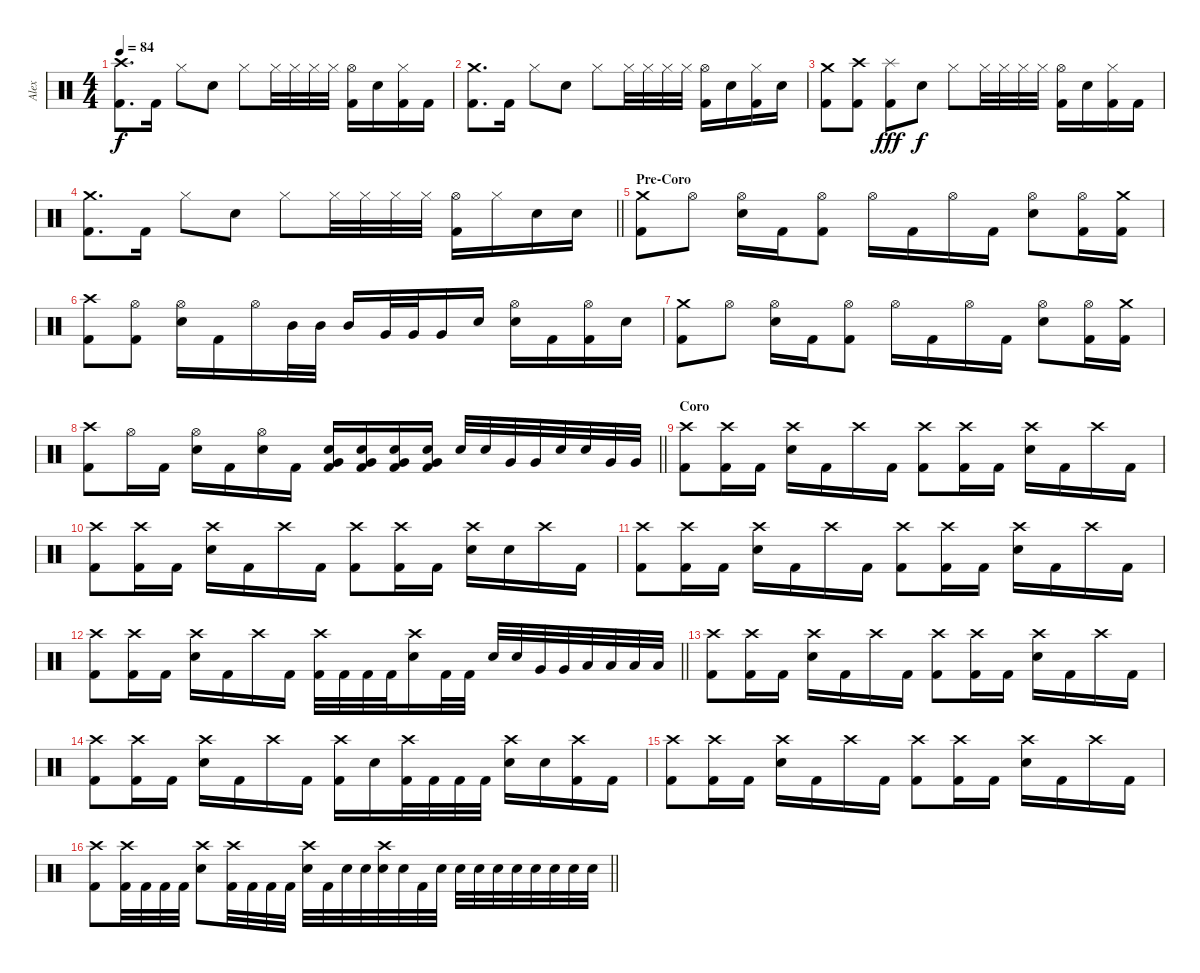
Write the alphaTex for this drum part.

\track ("Alex" "Alex") {instrument percussion}
\staff {score}
\articulation defaults
\ts (4 4)
\tempo 84
\clef neutral
\ks c
("Crash high (hit)" "Kick (hit) 2").8{d dy f} "Kick (hit) 2".16 "Hi-Hat (closed)".8 "Electric Snare (hit)".8 "Hi-Hat (closed)".8 "Hi-Hat (closed)".32 "Hi-Hat (closed)".32 "Hi-Hat (closed)".32 "Hi-Hat (closed)".32 ("Hi-Hat (open)" "Kick (hit) 2").16 "Electric Snare (hit)".16 ("Hi-Hat (closed)" "Kick (hit) 2").16 "Kick (hit) 2".16 |
("Crash medium (hit)" "Kick (hit) 2").8{d} "Kick (hit) 2".16 "Hi-Hat (closed)".8 "Electric Snare (hit)".8 "Hi-Hat (closed)".8 "Hi-Hat (closed)".32 "Hi-Hat (closed)".32 "Hi-Hat (closed)".32 "Hi-Hat (closed)".32 ("Hi-Hat (open)" "Kick (hit) 2").16 "Electric Snare (hit)".16 ("Hi-Hat (closed)" "Kick (hit) 2").16 "Electric Snare (hit)".16 |
("Crash medium (hit)" "Kick (hit) 2").8 ("Crash high (hit)" "Kick (hit) 2").8 ("Splash (hit)" "Kick (hit) 2").8{dy fff} "Electric Snare (hit)".8{dy f} "Hi-Hat (closed)".8 "Hi-Hat (closed)".32 "Hi-Hat (closed)".32 "Hi-Hat (closed)".32 "Hi-Hat (closed)".32 ("Hi-Hat (open)" "Kick (hit) 2").16 "Electric Snare (hit)".16 ("Hi-Hat (closed)" "Kick (hit) 2").16 "Kick (hit) 2".16 |
\barLineRight lightlight
("Crash medium (hit)" "Kick (hit) 2").8{d} "Kick (hit) 2".16 "Hi-Hat (closed)".8 "Electric Snare (hit)".8 "Hi-Hat (closed)".8 "Hi-Hat (closed)".32 "Hi-Hat (closed)".32 "Hi-Hat (closed)".32 "Hi-Hat (closed)".32 ("Hi-Hat (open)" "Kick (hit) 2").16 "Hi-Hat (closed)".16 "Electric Snare (hit)".16 "Electric Snare (hit)".16 |
\section ("" "Pre-Coro")
("Crash medium (hit)" "Kick (hit) 2").8 "Hi-Hat (open)".8 ("Hi-Hat (open)" "Electric Snare (hit)").16 "Kick (hit) 2".16 ("Hi-Hat (open)" "Kick (hit) 2").8 "Hi-Hat (open)".16 "Kick (hit) 2".16 "Hi-Hat (open)".16 "Kick (hit) 2".16 ("Hi-Hat (open)" "Electric Snare (hit)").8 ("Hi-Hat (open)" "Kick (hit) 2").16 ("Crash medium (hit)" "Kick (hit) 2").16 |
("Crash high (hit)" "Kick (hit) 2").8 ("Hi-Hat (open)" "Kick (hit) 2").8 ("Hi-Hat (open)" "Electric Snare (hit)").16 "Kick (hit) 2".16 "Hi-Hat (open)".16 "Mid Tom (hit)".32 "Mid Tom (hit)".32 "Mid Tom (hit)".16 "Very Low Tom (hit)".32 "Very Low Tom (hit)".32 "Very Low Tom (hit)".16 "Electric Snare (hit)".16 ("Hi-Hat (open)" "Electric Snare (hit)").16 "Kick (hit) 2".16 ("Hi-Hat (open)" "Kick (hit) 2").16 "Electric Snare (hit)".16 |
("Crash medium (hit)" "Kick (hit) 2").8 "Hi-Hat (open)".8 ("Hi-Hat (open)" "Electric Snare (hit)").16 "Kick (hit) 2".16 ("Hi-Hat (open)" "Kick (hit) 2").8 "Hi-Hat (open)".16 "Kick (hit) 2".16 "Hi-Hat (open)".16 "Kick (hit) 2".16 ("Hi-Hat (open)" "Electric Snare (hit)").8 ("Hi-Hat (open)" "Kick (hit) 2").16 ("Crash medium (hit)" "Kick (hit) 2").16 |
\barLineRight lightlight
("Crash high (hit)" "Kick (hit) 2").8 "Hi-Hat (open)".16 "Kick (hit) 2".16 ("Hi-Hat (open)" "Electric Snare (hit)").16 "Kick (hit) 2".16 ("Hi-Hat (open)" "Electric Snare (hit)").16 "Kick (hit) 2".16 ("Very Low Tom (hit)" "Electric Snare (hit)" "Kick (hit) 2").16 ("Very Low Tom (hit)" "Electric Snare (hit)" "Kick (hit) 2").16 ("Very Low Tom (hit)" "Electric Snare (hit)" "Kick (hit) 2").16 ("Very Low Tom (hit)" "Electric Snare (hit)" "Kick (hit) 2").16 "Electric Snare (hit)".32 "Electric Snare (hit)".32 "Very Low Tom (hit)".32 "Very Low Tom (hit)".32 "Electric Snare (hit)".32 "Electric Snare (hit)".32 "Very Low Tom (hit)".32 "Very Low Tom (hit)".32 |
\section ("" "Coro")
("Crash high (hit)" "Kick (hit) 2").8 ("Crash high (hit)" "Kick (hit) 2").16 "Kick (hit) 2".16 ("Crash high (hit)" "Electric Snare (hit)").16 "Kick (hit) 2".16 "Crash high (hit)".16 "Kick (hit) 2".16 ("Crash high (hit)" "Kick (hit) 2").8 ("Crash high (hit)" "Kick (hit) 2").16 "Kick (hit) 2".16 ("Crash high (hit)" "Electric Snare (hit)").16 "Kick (hit) 2".16 "Crash high (hit)".16 "Kick (hit) 2".16 |
("Crash high (hit)" "Kick (hit) 2").8 ("Crash high (hit)" "Kick (hit) 2").16 "Kick (hit) 2".16 ("Crash high (hit)" "Electric Snare (hit)").16 "Kick (hit) 2".16 "Crash high (hit)".16 "Kick (hit) 2".16 ("Crash high (hit)" "Kick (hit) 2").8 ("Crash high (hit)" "Kick (hit) 2").16 "Kick (hit) 2".16 ("Crash high (hit)" "Electric Snare (hit)").16 "Electric Snare (hit)".16 "Crash high (hit)".16 "Kick (hit) 2".16 |
("Crash high (hit)" "Kick (hit) 2").8 ("Crash high (hit)" "Kick (hit) 2").16 "Kick (hit) 2".16 ("Crash high (hit)" "Electric Snare (hit)").16 "Kick (hit) 2".16 "Crash high (hit)".16 "Kick (hit) 2".16 ("Crash high (hit)" "Kick (hit) 2").8 ("Crash high (hit)" "Kick (hit) 2").16 "Kick (hit) 2".16 ("Crash high (hit)" "Electric Snare (hit)").16 "Kick (hit) 2".16 "Crash high (hit)".16 "Kick (hit) 2".16 |
\barLineRight lightlight
("Crash high (hit)" "Kick (hit) 2").8 ("Crash high (hit)" "Kick (hit) 2").16 "Kick (hit) 2".16 ("Crash high (hit)" "Electric Snare (hit)").16 "Kick (hit) 2".16 "Crash high (hit)".16 "Kick (hit) 2".16 ("Crash high (hit)" "Kick (hit) 2").32 "Kick (hit) 2".32 "Kick (hit) 2".32 "Kick (hit) 2".32 ("Crash high (hit)" "Electric Snare (hit)").16 "Kick (hit) 2".32 "Kick (hit) 2".32 "Electric Snare (hit)".32 "Electric Snare (hit)".32 "Very Low Tom (hit)".32 "Very Low Tom (hit)".32 "Low Tom (hit)".32 "Low Tom (hit)".32 "Low Floor Tom (hit)".32 "Low Floor Tom (hit)".32 |
("Crash high (hit)" "Kick (hit) 2").8 ("Crash high (hit)" "Kick (hit) 2").16 "Kick (hit) 2".16 ("Crash high (hit)" "Electric Snare (hit)").16 "Kick (hit) 2".16 "Crash high (hit)".16 "Kick (hit) 2".16 ("Crash high (hit)" "Kick (hit) 2").8 ("Crash high (hit)" "Kick (hit) 2").16 "Kick (hit) 2".16 ("Crash high (hit)" "Electric Snare (hit)").16 "Kick (hit) 2".16 "Crash high (hit)".16 "Kick (hit) 2".16 |
("Crash high (hit)" "Kick (hit) 2").8 ("Crash high (hit)" "Kick (hit) 2").16 "Kick (hit) 2".16 ("Crash high (hit)" "Electric Snare (hit)").16 "Kick (hit) 2".16 "Crash high (hit)".16 "Kick (hit) 2".16 ("Crash high (hit)" "Kick (hit) 2").16 "Electric Snare (hit)".16 ("Crash high (hit)" "Kick (hit) 2").32 "Kick (hit) 2".32 "Kick (hit) 2".32 "Kick (hit) 2".32 ("Crash high (hit)" "Electric Snare (hit)").16 "Electric Snare (hit)".16 ("Crash high (hit)" "Kick (hit) 2").16 "Kick (hit) 2".16 |
("Crash high (hit)" "Kick (hit) 2").8 ("Crash high (hit)" "Kick (hit) 2").16 "Kick (hit) 2".16 ("Crash high (hit)" "Electric Snare (hit)").16 "Kick (hit) 2".16 "Crash high (hit)".16 "Kick (hit) 2".16 ("Crash high (hit)" "Kick (hit) 2").8 ("Crash high (hit)" "Kick (hit) 2").16 "Kick (hit) 2".16 ("Crash high (hit)" "Electric Snare (hit)").16 "Kick (hit) 2".16 "Crash high (hit)".16 "Kick (hit) 2".16 |
\barLineRight lightlight
("Crash high (hit)" "Kick (hit) 2").8 ("Crash high (hit)" "Kick (hit) 2").32 "Kick (hit) 2".32 "Kick (hit) 2".32 "Kick (hit) 2".32 ("Crash high (hit)" "Electric Snare (hit)").8 ("Crash high (hit)" "Kick (hit) 2").32 "Kick (hit) 2".32 "Kick (hit) 2".32 "Kick (hit) 2".32 ("Crash high (hit)" "Electric Snare (hit)").32 "Kick (hit) 2".32 "Electric Snare (hit)".32 "Electric Snare (hit)".32 ("Crash high (hit)" "Electric Snare (hit)").32 "Electric Snare (hit)".32 "Kick (hit) 2".32 "Electric Snare (hit)".32 "Electric Snare (hit)".32 "Electric Snare (hit)".32 "Electric Snare (hit)".32 "Electric Snare (hit)".32 "Electric Snare (hit)".32 "Electric Snare (hit)".32 "Electric Snare (hit)".32 "Electric Snare (hit)".32
